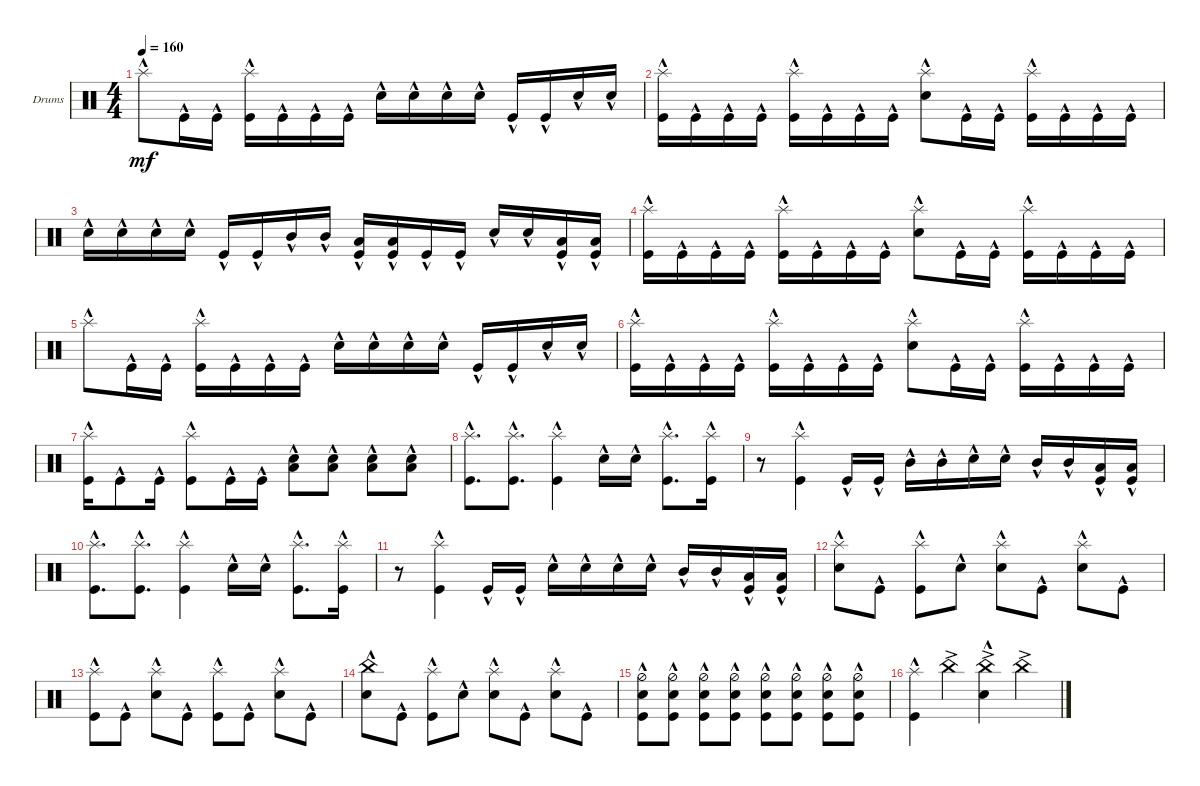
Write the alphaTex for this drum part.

\defaultSystemsLayout 4
\bracketExtendMode groupsimilarinstruments
\firstSystemTrackNameOrientation horizontal
\otherSystemsTrackNameOrientation horizontal
\track ("Drums" "Drums") {instrument percussion}
\staff {score}
\articulation defaults
\ts (4 4)
\tempo 160
\clef neutral
\ks c "Splash (hit)"{hac}.8{dy mf} "Kick (hit)"{hac}.16 "Kick (hit)"{hac}.16
("Kick (hit)"{hac} "Splash (hit)"{hac}).16 "Kick (hit)"{hac}.16 "Kick (hit)"{hac}.16 "Kick (hit)"{hac}.16 "Snare (hit) 2"{hac}.16 "Snare (hit) 2"{hac}.16 "Snare (hit) 2"{hac}.16 "Snare (hit) 2"{hac}.16 "Kick (hit)"{hac}.16 "Kick (hit)"{hac}.16 "Snare (hit) 2"{hac}.16 "Snare (hit) 2"{hac}.16 |
("Kick (hit)"{hac} "Splash (hit)"{hac}).16 "Kick (hit)"{hac}.16 "Kick (hit)"{hac}.16 "Kick (hit)"{hac}.16 ("Kick (hit)"{hac} "Splash (hit)"{hac}).16 "Kick (hit)"{hac}.16 "Kick (hit)"{hac}.16 "Kick (hit)"{hac}.16 ("Snare (hit) 2"{hac} "Splash (hit)"{hac}).8 "Kick (hit)"{hac}.16 "Kick (hit)"{hac}.16 ("Kick (hit)"{hac} "Splash (hit)"{hac}).16 "Kick (hit)"{hac}.16 "Kick (hit)"{hac}.16 "Kick (hit)"{hac}.16 |
"Snare (hit) 2"{hac}.16 "Snare (hit) 2"{hac}.16 "Snare (hit) 2"{hac}.16 "Snare (hit) 2"{hac}.16 "Kick (hit)"{hac}.16 "Kick (hit)"{hac}.16 "Mid Tom (hit)"{hac}.16 "Mid Tom (hit)"{hac}.16 ("Low Tom (hit)"{hac} "Kick (hit)").16 ("Low Tom (hit)"{hac} "Kick (hit)").16 "Kick (hit)"{hac}.16 "Kick (hit)"{hac}.16 "Snare (hit) 2"{hac}.16 "Snare (hit) 2"{hac}.16 ("Low Tom (hit)"{hac} "Kick (hit)").16 ("Low Tom (hit)"{hac} "Kick (hit)").16 |
("Kick (hit)"{hac} "Splash (hit)"{hac}).16 "Kick (hit)"{hac}.16 "Kick (hit)"{hac}.16 "Kick (hit)"{hac}.16 ("Kick (hit)"{hac} "Splash (hit)"{hac}).16 "Kick (hit)"{hac}.16 "Kick (hit)"{hac}.16 "Kick (hit)"{hac}.16 ("Snare (hit) 2"{hac} "Splash (hit)"{hac}).8 "Kick (hit)"{hac}.16 "Kick (hit)"{hac}.16 ("Kick (hit)"{hac} "Splash (hit)"{hac}).16 "Kick (hit)"{hac}.16 "Kick (hit)"{hac}.16 "Kick (hit)"{hac}.16 |
"Splash (hit)"{hac}.8 "Kick (hit)"{hac}.16 "Kick (hit)"{hac}.16 ("Kick (hit)"{hac} "Splash (hit)"{hac}).16 "Kick (hit)"{hac}.16 "Kick (hit)"{hac}.16 "Kick (hit)"{hac}.16 "Snare (hit) 2"{hac}.16 "Snare (hit) 2"{hac}.16 "Snare (hit) 2"{hac}.16 "Snare (hit) 2"{hac}.16 "Kick (hit)"{hac}.16 "Kick (hit)"{hac}.16 "Snare (hit) 2"{hac}.16 "Snare (hit) 2"{hac}.16 |
("Kick (hit)"{hac} "Splash (hit)"{hac}).16 "Kick (hit)"{hac}.16 "Kick (hit)"{hac}.16 "Kick (hit)"{hac}.16 ("Kick (hit)"{hac} "Splash (hit)"{hac}).16 "Kick (hit)"{hac}.16 "Kick (hit)"{hac}.16 "Kick (hit)"{hac}.16 ("Snare (hit) 2"{hac} "Splash (hit)"{hac}).8 "Kick (hit)"{hac}.16 "Kick (hit)"{hac}.16 ("Kick (hit)"{hac} "Splash (hit)"{hac}).16 "Kick (hit)"{hac}.16 "Kick (hit)"{hac}.16 "Kick (hit)"{hac}.16 |
("Kick (hit)"{hac} "Splash (hit)"{hac}).16 "Kick (hit)"{hac}.8 "Kick (hit)"{hac}.16 ("Kick (hit)"{hac} "Splash (hit)"{hac}).8 "Kick (hit)"{hac}.16 "Kick (hit)"{hac}.16 ("Snare (hit) 2"{hac} "Low Tom (hit)"{hac}).8 ("Snare (hit) 2"{hac} "Low Tom (hit)"{hac}).8 ("Snare (hit) 2"{hac} "Low Tom (hit)"{hac}).8 ("Snare (hit) 2"{hac} "Low Tom (hit)"{hac}).8 |
("Kick (hit)"{hac} "Splash (hit)"{hac}).8{d} ("Kick (hit)"{hac} "Splash (hit)"{hac}).8{d} ("Kick (hit)"{hac} "Splash (hit)"{hac}).4 "Snare (hit) 2"{hac}.16 "Snare (hit) 2"{hac}.16 ("Kick (hit)"{hac} "Splash (hit)"{hac}).8{d} ("Kick (hit)"{hac} "Splash (hit)"{hac}).16 |
r.8 ("Kick (hit)"{hac} "Splash (hit)"{hac}).4 "Kick (hit)"{hac}.16 "Kick (hit)"{hac}.16 "Mid Tom (hit)"{hac}.16 "Mid Tom (hit)"{hac}.16 "Snare (hit) 2"{hac}.16 "Snare (hit) 2"{hac}.16 "Mid Tom (hit)"{hac}.16 "Mid Tom (hit)"{hac}.16 ("Low Tom (hit)"{hac} "Kick (hit)").16 ("Low Tom (hit)"{hac} "Kick (hit)").16 |
("Kick (hit)"{hac} "Splash (hit)"{hac}).8{d} ("Kick (hit)"{hac} "Splash (hit)"{hac}).8{d} ("Kick (hit)"{hac} "Splash (hit)"{hac}).4 "Snare (hit) 2"{hac}.16 "Snare (hit) 2"{hac}.16 ("Kick (hit)"{hac} "Splash (hit)"{hac}).8{d} ("Kick (hit)"{hac} "Splash (hit)"{hac}).16 |
r.8 ("Kick (hit)"{hac} "Splash (hit)"{hac}).4 "Kick (hit)"{hac}.16 "Kick (hit)"{hac}.16 "Snare (hit) 2"{hac}.16 "Snare (hit) 2"{hac}.16 "Snare (hit) 2"{hac}.16 "Snare (hit) 2"{hac}.16 "Mid Tom (hit)"{hac}.16 "Mid Tom (hit)"{hac}.16 ("Low Tom (hit)"{hac} "Kick (hit)").16 ("Low Tom (hit)"{hac} "Kick (hit)").16 |
("Snare (hit) 2"{hac} "Splash (hit)"{hac}).8 "Kick (hit)"{hac}.8 ("Kick (hit)"{hac} "Splash (hit)"{hac}).8 "Snare (hit) 2"{hac}.8 ("Snare (hit) 2"{hac} "Splash (hit)"{hac}).8 "Kick (hit)"{hac}.8 ("Snare (hit) 2"{hac} "Splash (hit)"{hac}).8 "Kick (hit)"{hac}.8 |
("Kick (hit)"{hac} "Splash (hit)"{hac}).8 "Kick (hit)"{hac}.8 ("Snare (hit) 2"{hac} "Splash (hit)"{hac}).8 "Kick (hit)"{hac}.8 ("Kick (hit)"{hac} "Splash (hit)"{hac}).8 "Kick (hit)"{hac}.8 ("Snare (hit) 2"{hac} "Splash (hit)"{hac}).8 "Kick (hit)"{hac}.8 |
("Snare (hit) 2"{hac} "China (hit)"{hac}).8 "Kick (hit)"{hac}.8 ("Kick (hit)"{hac} "Splash (hit)"{hac}).8 "Snare (hit) 2"{hac}.8 ("Snare (hit) 2"{hac} "Splash (hit)"{hac}).8 "Kick (hit)"{hac}.8 ("Snare (hit) 2"{hac} "Splash (hit)"{hac}).8 "Kick (hit)"{hac}.8 |
("Snare (hit) 2"{hac} "Hi-Hat (half)" "Kick (hit)").8 ("Snare (hit) 2"{hac} "Hi-Hat (half)" "Kick (hit)").8 ("Snare (hit) 2"{hac} "Hi-Hat (half)" "Kick (hit)").8 ("Snare (hit) 2"{hac} "Hi-Hat (half)" "Kick (hit)").8 ("Snare (hit) 2"{hac} "Hi-Hat (half)" "Kick (hit)").8 ("Snare (hit) 2"{hac} "Hi-Hat (half)" "Kick (hit)").8 ("Snare (hit) 2"{hac} "Hi-Hat (half)" "Kick (hit)").8 ("Snare (hit) 2"{hac} "Hi-Hat (half)" "Kick (hit)").8 |
("Kick (hit)"{hac} "Splash (hit)"{hac}).4 "China (hit)"{ac}.4 ("China (hit)"{ac} "Snare (hit) 2"{hac}).4 "China (hit)"{ac}.4
